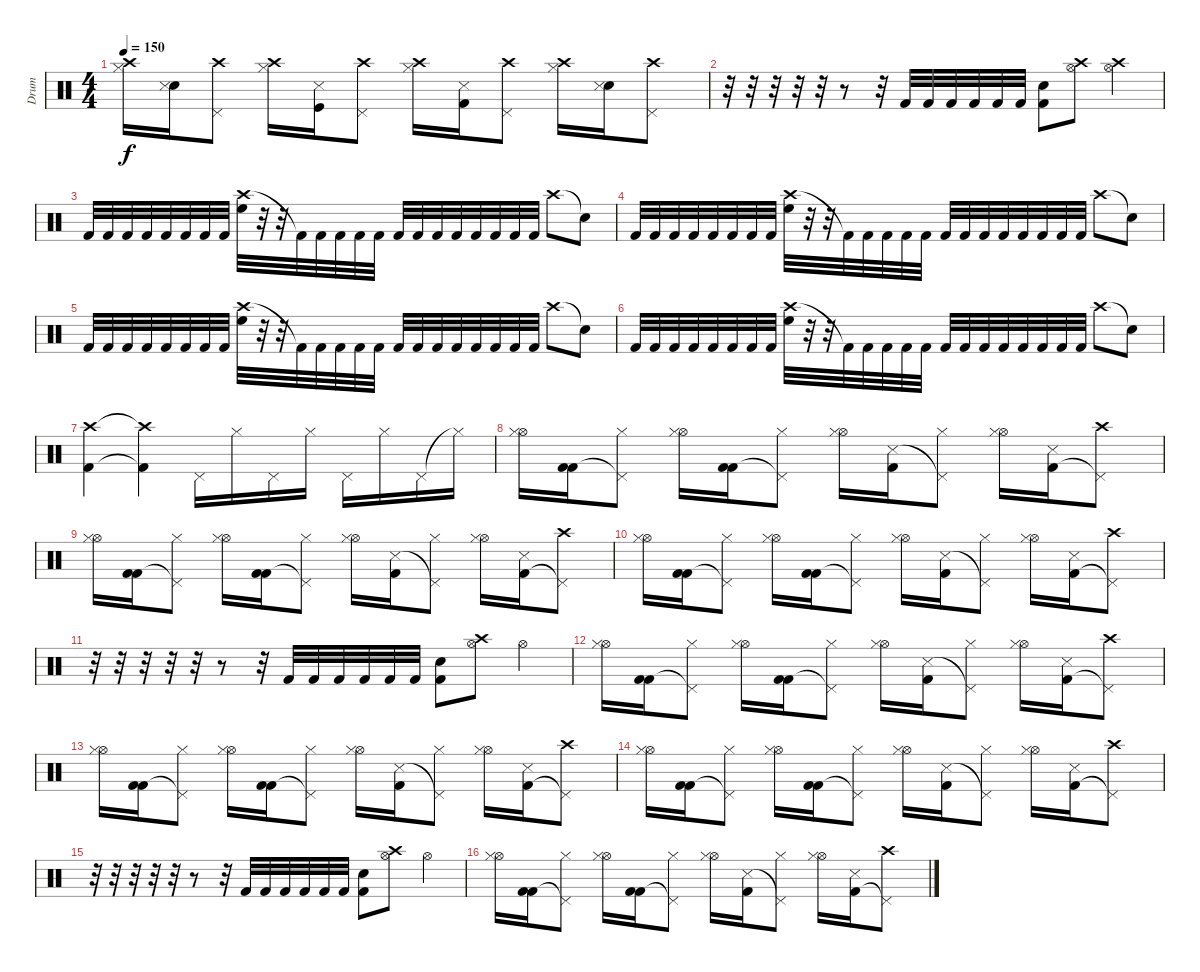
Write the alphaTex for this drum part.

\track ("Drum" "Drum") {instrument percussion}
\staff {score}
\articulation defaults
\ts (4 4)
\tempo 150
\clef neutral
\ks c
("Crash high (hit)" "Hi-Hat (closed)").16{dy f} ("Snare (hit) 2" "Snare (side stick) 3").16 ("Crash high (hit)" "Pedal Hi-Hat (hit)").8 ("Crash high (hit)" "Hi-Hat (closed)").16 ("Kick (hit)" "Snare (side stick) 3").16 ("Crash high (hit)" "Pedal Hi-Hat (hit)").8 ("Crash high (hit)" "Hi-Hat (closed)").16 ("Kick (hit) 2" "Snare (side stick) 3").16 ("Crash high (hit)" "Pedal Hi-Hat (hit)").8 ("Crash high (hit)" "Hi-Hat (closed)").16 ("Snare (hit) 2" "Snare (side stick) 3").16 ("Crash high (hit)" "Pedal Hi-Hat (hit)").8 |
r.32 r.32 r.32 r.32 r.32 r.8 r.32 "Kick (hit) 2".32 "Kick (hit) 2".32 "Kick (hit) 2".32 "Kick (hit) 2".32 "Kick (hit) 2".32 "Kick (hit) 2".32 ("Snare (hit) 2" "Kick (hit) 2").8 ("Hi-Hat (open)" "Crash high (hit)").8 ("Hi-Hat (open)" "Crash high (hit)").4 |
"Kick (hit) 2".32 "Kick (hit) 2".32 "Kick (hit) 2".32 "Kick (hit) 2".32 "Kick (hit) 2".32 "Kick (hit) 2".32 "Kick (hit) 2".32 "Kick (hit) 2".32 ("Crash high (hit)" "High Floor Tom (hit)").32 r.32 r.32 "Kick (hit) 2"{t}.32 "Kick (hit) 2".32 "Kick (hit) 2".32 "Kick (hit) 2".32 "Kick (hit) 2".32 "Kick (hit) 2".32 "Kick (hit) 2".32 "Kick (hit) 2".32 "Kick (hit) 2".32 "Kick (hit) 2".32 "Kick (hit) 2".32 "Kick (hit) 2".32 "Kick (hit) 2".32 "Crash high (hit)".8 "Snare (hit)"{t}.8 |
"Kick (hit) 2".32 "Kick (hit) 2".32 "Kick (hit) 2".32 "Kick (hit) 2".32 "Kick (hit) 2".32 "Kick (hit) 2".32 "Kick (hit) 2".32 "Kick (hit) 2".32 ("Crash high (hit)" "High Floor Tom (hit)").32 r.32 r.32 "Kick (hit) 2"{t}.32 "Kick (hit) 2".32 "Kick (hit) 2".32 "Kick (hit) 2".32 "Kick (hit) 2".32 "Kick (hit) 2".32 "Kick (hit) 2".32 "Kick (hit) 2".32 "Kick (hit) 2".32 "Kick (hit) 2".32 "Kick (hit) 2".32 "Kick (hit) 2".32 "Kick (hit) 2".32 "Crash high (hit)".8 "Snare (hit)"{t}.8 |
"Kick (hit) 2".32 "Kick (hit) 2".32 "Kick (hit) 2".32 "Kick (hit) 2".32 "Kick (hit) 2".32 "Kick (hit) 2".32 "Kick (hit) 2".32 "Kick (hit) 2".32 ("Crash high (hit)" "High Floor Tom (hit)").32 r.32 r.32 "Kick (hit) 2"{t}.32 "Kick (hit) 2".32 "Kick (hit) 2".32 "Kick (hit) 2".32 "Kick (hit) 2".32 "Kick (hit) 2".32 "Kick (hit) 2".32 "Kick (hit) 2".32 "Kick (hit) 2".32 "Kick (hit) 2".32 "Kick (hit) 2".32 "Kick (hit) 2".32 "Kick (hit) 2".32 "Crash high (hit)".8 "Snare (hit)"{t}.8 |
"Kick (hit) 2".32 "Kick (hit) 2".32 "Kick (hit) 2".32 "Kick (hit) 2".32 "Kick (hit) 2".32 "Kick (hit) 2".32 "Kick (hit) 2".32 "Kick (hit) 2".32 ("Crash high (hit)" "High Floor Tom (hit)").32 r.32 r.32 "Kick (hit) 2"{t}.32 "Kick (hit) 2".32 "Kick (hit) 2".32 "Kick (hit) 2".32 "Kick (hit) 2".32 "Kick (hit) 2".32 "Kick (hit) 2".32 "Kick (hit) 2".32 "Kick (hit) 2".32 "Kick (hit) 2".32 "Kick (hit) 2".32 "Kick (hit) 2".32 "Kick (hit) 2".32 "Crash high (hit)".8 "Snare (hit)"{t}.8 |
("Kick (hit) 2" "Crash high (hit)").4 ("Kick (hit) 2"{t} "Crash high (hit)"{t}).4 "Pedal Hi-Hat (hit)".16 "Hi-Hat (closed)".16 "Pedal Hi-Hat (hit)".16 "Hi-Hat (closed)".16 "Pedal Hi-Hat (hit)".16 "Hi-Hat (closed)".16 "Pedal Hi-Hat (hit)".16 "Hi-Hat (closed)"{t}.16 |
("Hi-Hat (open)" "Hi-Hat (closed)").16 ("Kick (hit) 2" "Kick (hit) 2").16 ("Hi-Hat (closed)" "Pedal Hi-Hat (hit)"{t}).8 ("Hi-Hat (open)" "Hi-Hat (closed)").16 ("Kick (hit) 2" "Kick (hit) 2").16 ("Hi-Hat (closed)" "Pedal Hi-Hat (hit)"{t}).8 ("Hi-Hat (open)" "Hi-Hat (closed)").16 ("Kick (hit) 2" "Snare (side stick) 3").16 ("Hi-Hat (closed)" "Pedal Hi-Hat (hit)"{t}).8 ("Hi-Hat (open)" "Hi-Hat (closed)").16 ("Snare (side stick) 3" "Kick (hit) 2").16 ("Crash high (hit)" "Pedal Hi-Hat (hit)"{t}).8 |
("Hi-Hat (open)" "Hi-Hat (closed)").16 ("Kick (hit) 2" "Kick (hit) 2").16 ("Hi-Hat (closed)" "Pedal Hi-Hat (hit)"{t}).8 ("Hi-Hat (open)" "Hi-Hat (closed)").16 ("Kick (hit) 2" "Kick (hit) 2").16 ("Hi-Hat (closed)" "Pedal Hi-Hat (hit)"{t}).8 ("Hi-Hat (open)" "Hi-Hat (closed)").16 ("Kick (hit) 2" "Snare (side stick) 3").16 ("Hi-Hat (closed)" "Pedal Hi-Hat (hit)"{t}).8 ("Hi-Hat (open)" "Hi-Hat (closed)").16 ("Snare (side stick) 3" "Kick (hit) 2").16 ("Crash high (hit)" "Pedal Hi-Hat (hit)"{t}).8 |
("Hi-Hat (open)" "Hi-Hat (closed)").16 ("Kick (hit) 2" "Kick (hit) 2").16 ("Hi-Hat (closed)" "Pedal Hi-Hat (hit)"{t}).8 ("Hi-Hat (open)" "Hi-Hat (closed)").16 ("Kick (hit) 2" "Kick (hit) 2").16 ("Hi-Hat (closed)" "Pedal Hi-Hat (hit)"{t}).8 ("Hi-Hat (open)" "Hi-Hat (closed)").16 ("Kick (hit) 2" "Snare (side stick) 3").16 ("Hi-Hat (closed)" "Pedal Hi-Hat (hit)"{t}).8 ("Hi-Hat (open)" "Hi-Hat (closed)").16 ("Snare (side stick) 3" "Kick (hit) 2").16 ("Crash high (hit)" "Pedal Hi-Hat (hit)"{t}).8 |
r.32 r.32 r.32 r.32 r.32 r.8 r.32 "Kick (hit) 2".32 "Kick (hit) 2".32 "Kick (hit) 2".32 "Kick (hit) 2".32 "Kick (hit) 2".32 "Kick (hit) 2".32 ("Snare (hit) 2" "Kick (hit) 2").8 ("Hi-Hat (open)" "Crash high (hit)").8 "Hi-Hat (open)".4 |
("Hi-Hat (open)" "Hi-Hat (closed)").16 ("Kick (hit) 2" "Kick (hit) 2").16 ("Hi-Hat (closed)" "Pedal Hi-Hat (hit)"{t}).8 ("Hi-Hat (open)" "Hi-Hat (closed)").16 ("Kick (hit) 2" "Kick (hit) 2").16 ("Hi-Hat (closed)" "Pedal Hi-Hat (hit)"{t}).8 ("Hi-Hat (open)" "Hi-Hat (closed)").16 ("Kick (hit) 2" "Snare (side stick) 3").16 ("Hi-Hat (closed)" "Pedal Hi-Hat (hit)"{t}).8 ("Hi-Hat (open)" "Hi-Hat (closed)").16 ("Snare (side stick) 3" "Kick (hit) 2").16 ("Crash high (hit)" "Pedal Hi-Hat (hit)"{t}).8 |
("Hi-Hat (open)" "Hi-Hat (closed)").16 ("Kick (hit) 2" "Kick (hit) 2").16 ("Hi-Hat (closed)" "Pedal Hi-Hat (hit)"{t}).8 ("Hi-Hat (open)" "Hi-Hat (closed)").16 ("Kick (hit) 2" "Kick (hit) 2").16 ("Hi-Hat (closed)" "Pedal Hi-Hat (hit)"{t}).8 ("Hi-Hat (open)" "Hi-Hat (closed)").16 ("Kick (hit) 2" "Snare (side stick) 3").16 ("Hi-Hat (closed)" "Pedal Hi-Hat (hit)"{t}).8 ("Hi-Hat (open)" "Hi-Hat (closed)").16 ("Snare (side stick) 3" "Kick (hit) 2").16 ("Crash high (hit)" "Pedal Hi-Hat (hit)"{t}).8 |
("Hi-Hat (open)" "Hi-Hat (closed)").16 ("Kick (hit) 2" "Kick (hit) 2").16 ("Hi-Hat (closed)" "Pedal Hi-Hat (hit)"{t}).8 ("Hi-Hat (open)" "Hi-Hat (closed)").16 ("Kick (hit) 2" "Kick (hit) 2").16 ("Hi-Hat (closed)" "Pedal Hi-Hat (hit)"{t}).8 ("Hi-Hat (open)" "Hi-Hat (closed)").16 ("Kick (hit) 2" "Snare (side stick) 3").16 ("Hi-Hat (closed)" "Pedal Hi-Hat (hit)"{t}).8 ("Hi-Hat (open)" "Hi-Hat (closed)").16 ("Snare (side stick) 3" "Kick (hit) 2").16 ("Crash high (hit)" "Pedal Hi-Hat (hit)"{t}).8 |
r.32 r.32 r.32 r.32 r.32 r.8 r.32 "Kick (hit) 2".32 "Kick (hit) 2".32 "Kick (hit) 2".32 "Kick (hit) 2".32 "Kick (hit) 2".32 "Kick (hit) 2".32 ("Snare (hit) 2" "Kick (hit) 2").8 ("Hi-Hat (open)" "Crash high (hit)").8 "Hi-Hat (open)".4 |
("Hi-Hat (open)" "Hi-Hat (closed)").16 ("Kick (hit) 2" "Kick (hit) 2").16 ("Hi-Hat (closed)" "Pedal Hi-Hat (hit)"{t}).8 ("Hi-Hat (open)" "Hi-Hat (closed)").16 ("Kick (hit) 2" "Kick (hit) 2").16 ("Hi-Hat (closed)" "Pedal Hi-Hat (hit)"{t}).8 ("Hi-Hat (open)" "Hi-Hat (closed)").16 ("Kick (hit) 2" "Snare (side stick) 3").16 ("Hi-Hat (closed)" "Pedal Hi-Hat (hit)"{t}).8 ("Hi-Hat (open)" "Hi-Hat (closed)").16 ("Snare (side stick) 3" "Kick (hit) 2").16 ("Crash high (hit)" "Pedal Hi-Hat (hit)"{t}).8
